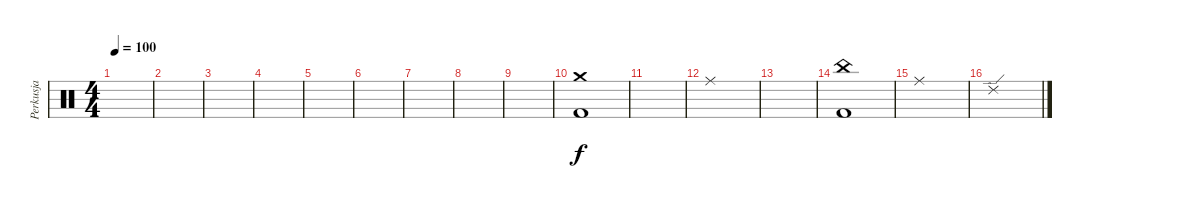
\track ("Perkusja" "Perkusja") {instrument percussion}
\staff {score}
\articulation defaults
\ts (4 4)
\tempo 100
\clef neutral
\ks c
|
|
|
|
|
|
|
|
|
("Crash medium (hit)" "Kick (hit) 2").1 |
|
"Ride (middle)".1 |
|
("China (hit)" "Kick (hit) 2").1 |
"Ride (middle)".1 |
"Ride (edge) 2".1
